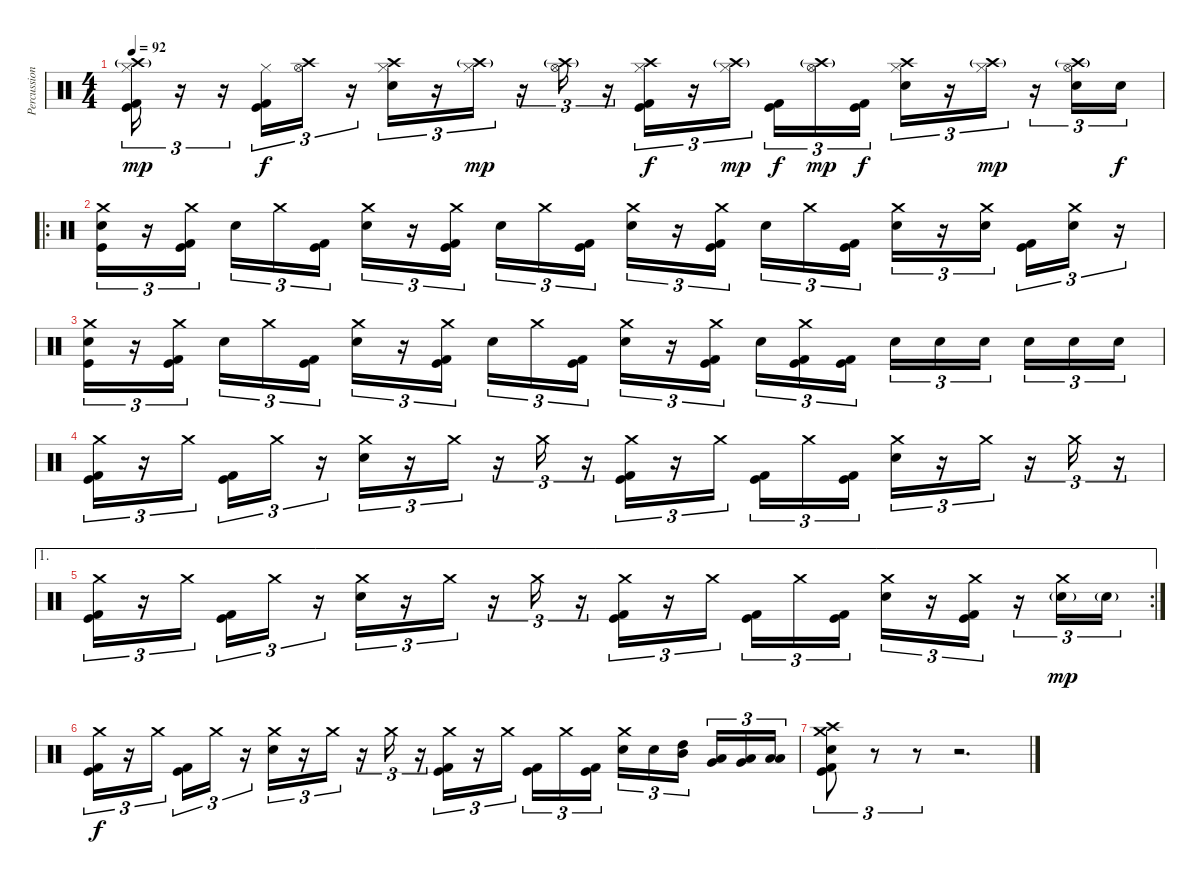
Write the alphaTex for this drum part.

\track ("Percussions" "Percussion") {instrument percussion}
\staff {score}
\articulation defaults
\ts (4 4)
\tempo 92
\clef neutral
\ks c
("Crash high (hit)"{g} "Hi-Hat (closed)" "Kick (hit) 2" "Kick (hit)").16{tu (3 2) dy mp} r.16{tu (3 2)} r.16{tu (3 2)} ("Hi-Hat (closed)" "Kick (hit) 2" "Kick (hit)").16{tu (3 2) dy f} ("Crash high (hit)" "Hi-Hat (open)").16{tu (3 2)} r.16{tu (3 2)} ("Crash high (hit)" "Hi-Hat (closed)" "Electric Snare (hit)").16{tu (3 2)} r.16{tu (3 2)} ("Crash high (hit)"{g} "Hi-Hat (closed)").16{tu (3 2) dy mp} r.16{tu (3 2)} ("Crash high (hit)"{g} "Hi-Hat (open)").16{tu (3 2)} r.16{tu (3 2)} ("Crash high (hit)" "Hi-Hat (closed)" "Kick (hit) 2" "Kick (hit)").16{tu (3 2) dy f} r.16{tu (3 2)} ("Crash high (hit)"{g} "Hi-Hat (closed)").16{tu (3 2) dy mp} ("Kick (hit) 2" "Kick (hit)").16{tu (3 2) dy f} ("Crash high (hit)"{g} "Hi-Hat (open)").16{tu (3 2) dy mp} ("Kick (hit) 2" "Kick (hit)").16{tu (3 2) dy f} ("Crash high (hit)" "Hi-Hat (closed)" "Electric Snare (hit)").16{tu (3 2)} r.16{tu (3 2)} ("Crash high (hit)"{g} "Hi-Hat (closed)").16{tu (3 2) dy mp} r.16{tu (3 2)} ("Crash high (hit)"{g} "Hi-Hat (open)" "Electric Snare (hit)").16{tu (3 2)} "Electric Snare (hit)".16{tu (3 2) dy f} |
\ro
("Crash medium (hit)" "Electric Snare (hit)" "Kick (hit)").16{tu (3 2)} r.16{tu (3 2)} ("Crash medium (hit)" "Kick (hit) 2" "Kick (hit)").16{tu (3 2)} "Electric Snare (hit)".16{tu (3 2)} "Crash medium (hit)".16{tu (3 2)} ("Kick (hit) 2" "Kick (hit)").16{tu (3 2)} ("Crash medium (hit)" "Electric Snare (hit)").16{tu (3 2)} r.16{tu (3 2)} ("Crash medium (hit)" "Kick (hit) 2" "Kick (hit)").16{tu (3 2)} "Electric Snare (hit)".16{tu (3 2)} "Crash medium (hit)".16{tu (3 2)} ("Kick (hit) 2" "Kick (hit)").16{tu (3 2)} ("Crash medium (hit)" "Electric Snare (hit)").16{tu (3 2)} r.16{tu (3 2)} ("Crash medium (hit)" "Kick (hit) 2" "Kick (hit)").16{tu (3 2)} "Electric Snare (hit)".16{tu (3 2)} "Crash medium (hit)".16{tu (3 2)} ("Kick (hit) 2" "Kick (hit)").16{tu (3 2)} ("Crash medium (hit)" "Electric Snare (hit)").16{tu (3 2)} r.16{tu (3 2)} ("Crash medium (hit)" "Electric Snare (hit)").16{tu (3 2)} ("Kick (hit) 2" "Kick (hit)").16{tu (3 2)} ("Crash medium (hit)" "Electric Snare (hit)").16{tu (3 2)} r.16{tu (3 2)} |
("Crash medium (hit)" "Electric Snare (hit)" "Kick (hit)").16{tu (3 2)} r.16{tu (3 2)} ("Crash medium (hit)" "Kick (hit) 2" "Kick (hit)").16{tu (3 2)} "Electric Snare (hit)".16{tu (3 2)} "Crash medium (hit)".16{tu (3 2)} ("Kick (hit) 2" "Kick (hit)").16{tu (3 2)} ("Crash medium (hit)" "Electric Snare (hit)").16{tu (3 2)} r.16{tu (3 2)} ("Crash medium (hit)" "Kick (hit)" "Kick (hit) 2").16{tu (3 2)} "Electric Snare (hit)".16{tu (3 2)} "Crash medium (hit)".16{tu (3 2)} ("Kick (hit) 2" "Kick (hit)").16{tu (3 2)} ("Crash medium (hit)" "Electric Snare (hit)").16{tu (3 2)} r.16{tu (3 2)} ("Crash medium (hit)" "Kick (hit) 2" "Kick (hit)").16{tu (3 2)} "Electric Snare (hit)".16{tu (3 2)} ("Crash medium (hit)" "Kick (hit) 2" "Kick (hit)").16{tu (3 2)} ("Kick (hit) 2" "Kick (hit)").16{tu (3 2)} "Electric Snare (hit)".16{tu (3 2)} "Electric Snare (hit)".16{tu (3 2)} "Electric Snare (hit)".16{tu (3 2)} "Electric Snare (hit)".16{tu (3 2)} "Electric Snare (hit)".16{tu (3 2)} "Electric Snare (hit)".16{tu (3 2)} |
("Crash medium (hit)" "Kick (hit) 2" "Kick (hit)").16{tu (3 2)} r.16{tu (3 2)} "Crash medium (hit)".16{tu (3 2)} ("Kick (hit) 2" "Kick (hit)").16{tu (3 2)} "Crash medium (hit)".16{tu (3 2)} r.16{tu (3 2)} ("Crash medium (hit)" "Electric Snare (hit)").16{tu (3 2)} r.16{tu (3 2)} "Crash medium (hit)".16{tu (3 2)} r.16{tu (3 2)} "Crash medium (hit)".16{tu (3 2)} r.16{tu (3 2)} ("Crash medium (hit)" "Kick (hit) 2" "Kick (hit)").16{tu (3 2)} r.16{tu (3 2)} "Crash medium (hit)".16{tu (3 2)} ("Kick (hit) 2" "Kick (hit)").16{tu (3 2)} "Crash medium (hit)".16{tu (3 2)} ("Kick (hit) 2" "Kick (hit)").16{tu (3 2)} ("Crash medium (hit)" "Electric Snare (hit)").16{tu (3 2)} r.16{tu (3 2)} "Crash medium (hit)".16{tu (3 2)} r.16{tu (3 2)} "Crash medium (hit)".16{tu (3 2)} r.16{tu (3 2)} |
\ae 1
\rc 2
("Crash medium (hit)" "Kick (hit) 2" "Kick (hit)").16{tu (3 2)} r.16{tu (3 2)} "Crash medium (hit)".16{tu (3 2)} ("Kick (hit) 2" "Kick (hit)").16{tu (3 2)} "Crash medium (hit)".16{tu (3 2)} r.16{tu (3 2)} ("Crash medium (hit)" "Electric Snare (hit)").16{tu (3 2)} r.16{tu (3 2)} "Crash medium (hit)".16{tu (3 2)} r.16{tu (3 2)} "Crash medium (hit)".16{tu (3 2)} r.16{tu (3 2)} ("Crash medium (hit)" "Kick (hit) 2" "Kick (hit)").16{tu (3 2)} r.16{tu (3 2)} "Crash medium (hit)".16{tu (3 2)} ("Kick (hit) 2" "Kick (hit)").16{tu (3 2)} "Crash medium (hit)".16{tu (3 2)} ("Kick (hit) 2" "Kick (hit)").16{tu (3 2)} ("Crash medium (hit)" "Electric Snare (hit)").16{tu (3 2)} r.16{tu (3 2)} ("Crash medium (hit)" "Kick (hit) 2" "Kick (hit)").16{tu (3 2)} r.16{tu (3 2)} ("Crash medium (hit)" "Electric Snare (hit)"{g}).16{tu (3 2) dy mp} "Electric Snare (hit)"{g}.16{tu (3 2)} |
("Crash medium (hit)" "Kick (hit) 2" "Kick (hit)").16{tu (3 2) dy f} r.16{tu (3 2)} "Crash medium (hit)".16{tu (3 2)} ("Kick (hit) 2" "Kick (hit)").16{tu (3 2)} "Crash medium (hit)".16{tu (3 2)} r.16{tu (3 2)} ("Crash medium (hit)" "Electric Snare (hit)").16{tu (3 2)} r.16{tu (3 2)} "Crash medium (hit)".16{tu (3 2)} r.16{tu (3 2)} "Crash medium (hit)".16{tu (3 2)} r.16{tu (3 2)} ("Crash medium (hit)" "Kick (hit) 2" "Kick (hit)").16{tu (3 2)} r.16{tu (3 2)} "Crash medium (hit)".16{tu (3 2)} ("Kick (hit) 2" "Kick (hit)").16{tu (3 2)} "Crash medium (hit)".16{tu (3 2)} ("Kick (hit) 2" "Kick (hit)").16{tu (3 2)} ("Crash medium (hit)" "Electric Snare (hit)").16{tu (3 2)} "Electric Snare (hit)".16{tu (3 2)} ("High Tom (hit)" "Mid Tom (hit)").16{tu (3 2)} ("Very Low Tom (hit)" "Low Tom (hit)").16{tu (3 2)} ("Low Floor Tom (hit)" "Very Low Tom (hit)").16{tu (3 2)} ("Low Floor Tom (hit)" "Low Floor Tom (hit)").16{tu (3 2)} |
("Crash medium (hit)" "Crash high (hit)" "Electric Snare (hit)" "Kick (hit) 2" "Kick (hit)").8{tu (3 2)} r.8{tu (3 2)} r.8{tu (3 2)} r.2{d}
